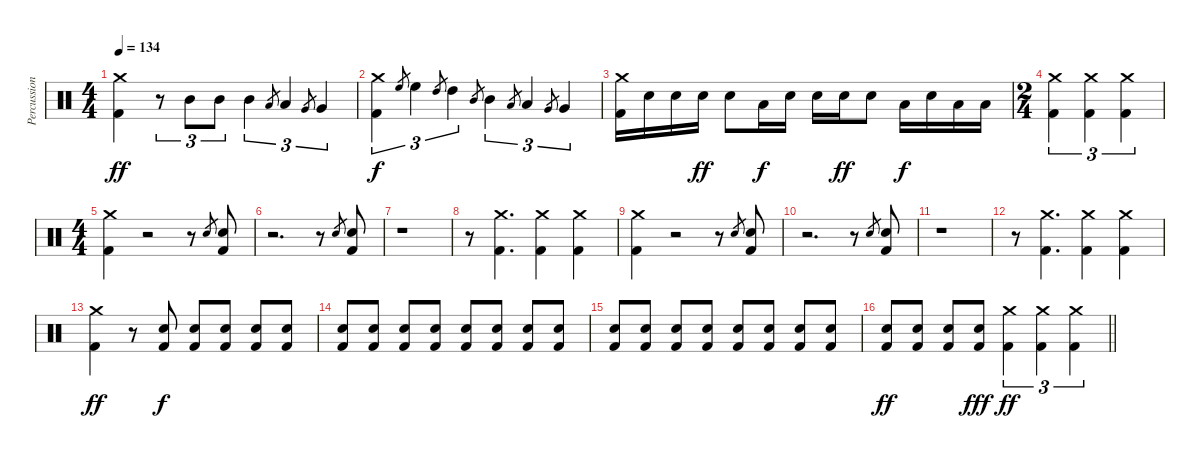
\track ("Percussion" "Percussion") {instrument percussion}
\staff {score}
\articulation defaults
\ts (4 4)
\tempo 134
\clef neutral
\ks c
("Kick (hit) 2" "Crash medium (hit)").4{dy ff} r.8{tu (3 2)} "Mid Tom (hit)".8{tu (3 2)} "Mid Tom (hit)".8{tu (3 2)} "Mid Tom (hit)".4{tu (3 2)} "Low Tom (hit)".8{gr} "Low Tom (hit)".4{tu (3 2)} "Very Low Tom (hit)".8{gr} "Very Low Tom (hit)".4{tu (3 2)} |
("Kick (hit) 2" "Crash medium (hit)").4{tu (3 2) dy f} "High Floor Tom (hit)".8{gr} "High Floor Tom (hit)".4{tu (3 2)} "High Tom (hit)".8{gr} "High Tom (hit)".4{tu (3 2)} "Mid Tom (hit)".8{gr} "Mid Tom (hit)".4{tu (3 2)} "Low Tom (hit)".8{gr} "Low Tom (hit)".4{tu (3 2)} "Very Low Tom (hit)".8{gr} "Very Low Tom (hit)".4{tu (3 2)} |
("Kick (hit) 2" "Crash medium (hit)").16 "Electric Snare (hit)".16 "Electric Snare (hit)".16 "Electric Snare (hit)".16{dy ff} "Electric Snare (hit)".8 "Low Tom (hit)".16{dy f} "Electric Snare (hit)".16 "Electric Snare (hit)".16 "Electric Snare (hit)".16{dy ff} "Electric Snare (hit)".8 "Low Tom (hit)".16{dy f} "Electric Snare (hit)".16 "Low Tom (hit)".16 "Low Tom (hit)".16 |
\ts (2 4)
("Kick (hit) 2" "Crash medium (hit)").4{tu (3 2)} ("Kick (hit) 2" "Crash medium (hit)").4{tu (3 2)} ("Kick (hit) 2" "Crash medium (hit)").4{tu (3 2)} |
\ts (4 4)
("Kick (hit) 2" "Crash medium (hit)").4 r.2 r.8 "Electric Snare (hit)".8{gr} ("Kick (hit) 2" "Electric Snare (hit)").8 |
r.2{d} r.8 "Electric Snare (hit)".8{gr} ("Kick (hit) 2" "Electric Snare (hit)").8 |
r.1 |
r.8 ("Kick (hit) 2" "Crash medium (hit)").4{d} ("Kick (hit) 2" "Crash medium (hit)").4 ("Kick (hit) 2" "Crash medium (hit)").4 |
("Kick (hit) 2" "Crash medium (hit)").4 r.2 r.8 "Electric Snare (hit)".8{gr} ("Kick (hit) 2" "Electric Snare (hit)").8 |
r.2{d} r.8 "Electric Snare (hit)".8{gr} ("Kick (hit) 2" "Electric Snare (hit)").8 |
r.1 |
r.8 ("Kick (hit) 2" "Crash medium (hit)").4{d} ("Kick (hit) 2" "Crash medium (hit)").4 ("Kick (hit) 2" "Crash medium (hit)").4 |
("Kick (hit) 2" "Crash medium (hit)").4{dy ff} r.8 ("Kick (hit) 2" "Electric Snare (hit)").8{dy f} ("Kick (hit) 2" "Electric Snare (hit)").8 ("Kick (hit) 2" "Electric Snare (hit)").8 ("Kick (hit) 2" "Electric Snare (hit)").8 ("Kick (hit) 2" "Electric Snare (hit)").8 |
("Kick (hit) 2" "Electric Snare (hit)").8 ("Kick (hit) 2" "Electric Snare (hit)").8 ("Kick (hit) 2" "Electric Snare (hit)").8 ("Kick (hit) 2" "Electric Snare (hit)").8 ("Kick (hit) 2" "Electric Snare (hit)").8 ("Kick (hit) 2" "Electric Snare (hit)").8 ("Kick (hit) 2" "Electric Snare (hit)").8 ("Kick (hit) 2" "Electric Snare (hit)").8 |
("Kick (hit) 2" "Electric Snare (hit)").8 ("Kick (hit) 2" "Electric Snare (hit)").8 ("Kick (hit) 2" "Electric Snare (hit)").8 ("Kick (hit) 2" "Electric Snare (hit)").8 ("Kick (hit) 2" "Electric Snare (hit)").8 ("Kick (hit) 2" "Electric Snare (hit)").8 ("Kick (hit) 2" "Electric Snare (hit)").8 ("Kick (hit) 2" "Electric Snare (hit)").8 |
\barLineRight lightlight
("Kick (hit) 2" "Electric Snare (hit)").8{dy ff} ("Kick (hit) 2" "Electric Snare (hit)").8 ("Kick (hit) 2" "Electric Snare (hit)").8 ("Kick (hit) 2" "Electric Snare (hit)").8{dy fff} ("Kick (hit) 2" "Crash medium (hit)").4{tu (3 2) dy ff} ("Kick (hit) 2" "Crash medium (hit)").4{tu (3 2)} ("Kick (hit) 2" "Crash medium (hit)").4{tu (3 2)}
